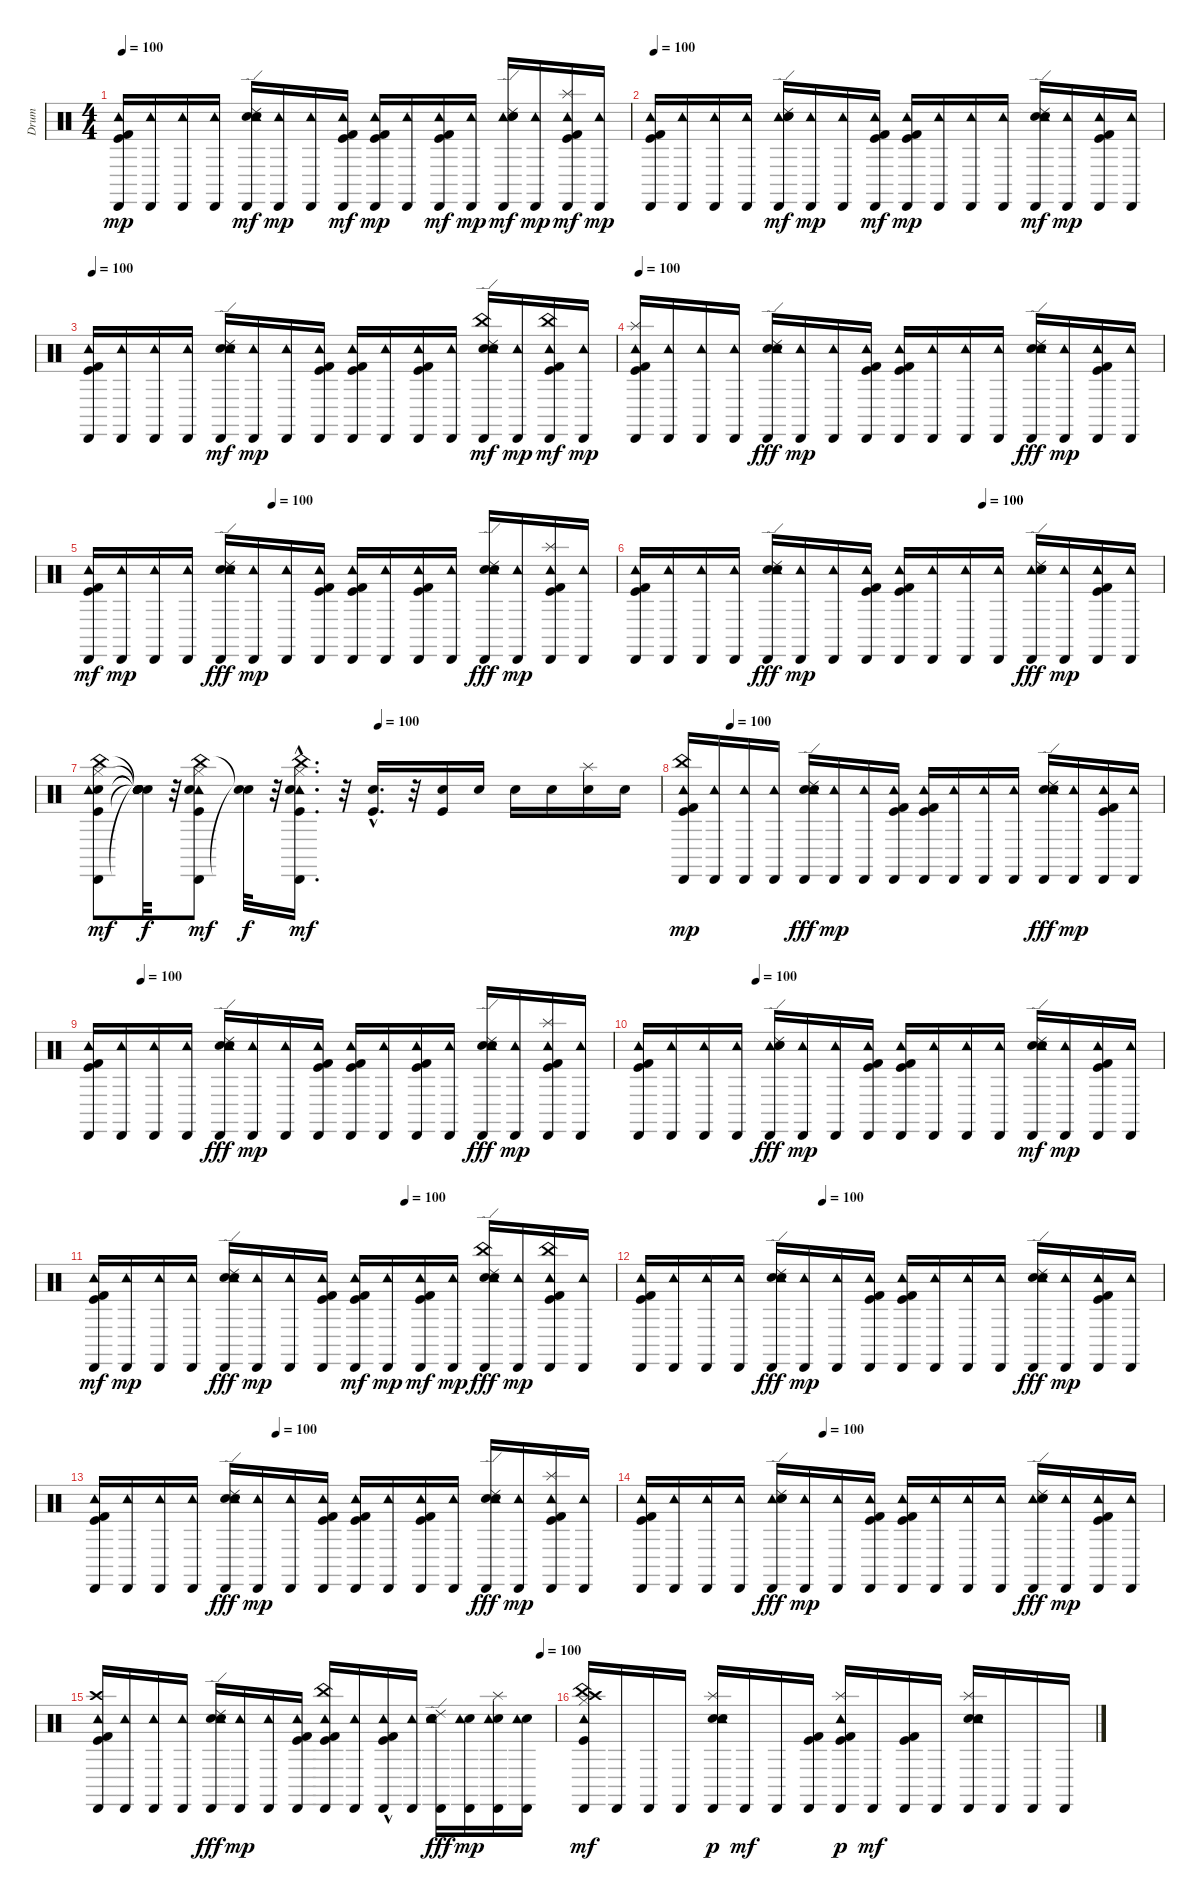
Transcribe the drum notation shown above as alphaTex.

\track ("Drum" "Drum") {instrument percussion}
\staff {score}
\articulation defaults
\ts (4 4)
\tempo 100
\clef neutral
\ks c
("Tambourine (hit)" "Kick (hit) 2" "Kick (hit)" "Cabasa (hit)").16{dy mp} ("Tambourine (hit)" "Cabasa (hit)").16 ("Cabasa (hit)" "Tambourine (hit)").16 ("Tambourine (hit)" "Cabasa (hit)").16 ("Snare (hit) 2" "Cabasa (hit)" "Tambourine (hit)" "Ride (edge) 2" "Electric Snare (hit)").16{dy mf} ("Cabasa (hit)" "Tambourine (hit)").16{dy mp} ("Tambourine (hit)" "Cabasa (hit)").16 ("Kick (hit) 2" "Cabasa (hit)" "Tambourine (hit)" "Kick (hit)").16{dy mf} ("Tambourine (hit)" "Kick (hit)" "Kick (hit) 2" "Cabasa (hit)").16{dy mp} ("Cabasa (hit)" "Tambourine (hit)").16 ("Tambourine (hit)" "Cabasa (hit)" "Kick (hit) 2" "Kick (hit)").16{dy mf} ("Cabasa (hit)" "Tambourine (hit)").16{dy mp} ("Tambourine (hit)" "Cabasa (hit)" "Ride (edge) 2" "Snare (hit) 2" "Electric Snare (hit)").16{dy mf} ("Cabasa (hit)" "Tambourine (hit)").16{dy mp} ("Tambourine (hit)" "Splash (hit)" "Cabasa (hit)" "Kick (hit)" "Kick (hit) 2").16{dy mf} ("Cabasa (hit)" "Tambourine (hit)").16{dy mp} |
\tempo 100
("Cabasa (hit)" "Kick (hit)" "Tambourine (hit)" "Kick (hit) 2").16 ("Cabasa (hit)" "Tambourine (hit)").16 ("Cabasa (hit)" "Tambourine (hit)").16 ("Cabasa (hit)" "Tambourine (hit)").16 ("Cabasa (hit)" "Tambourine (hit)" "Ride (edge) 2" "Snare (hit) 2" "Electric Snare (hit)").16{dy mf} ("Cabasa (hit)" "Tambourine (hit)").16{dy mp} ("Cabasa (hit)" "Tambourine (hit)").16 ("Kick (hit) 2" "Tambourine (hit)" "Cabasa (hit)" "Kick (hit)").16{dy mf} ("Cabasa (hit)" "Kick (hit) 2" "Kick (hit)" "Tambourine (hit)").16{dy mp} ("Tambourine (hit)" "Cabasa (hit)").16 ("Tambourine (hit)" "Cabasa (hit)").16 ("Cabasa (hit)" "Tambourine (hit)").16 ("Snare (hit) 2" "Tambourine (hit)" "Cabasa (hit)" "Ride (edge) 2" "Electric Snare (hit)").16{dy mf} ("Cabasa (hit)" "Tambourine (hit)").16{dy mp} ("Kick (hit)" "Tambourine (hit)" "Cabasa (hit)" "Kick (hit) 2").16 ("Tambourine (hit)" "Cabasa (hit)").16 |
\tempo 100
("Cabasa (hit)" "Kick (hit)" "Tambourine (hit)" "Kick (hit) 2").16 ("Cabasa (hit)" "Tambourine (hit)").16 ("Cabasa (hit)" "Tambourine (hit)").16 ("Cabasa (hit)" "Tambourine (hit)").16 ("Cabasa (hit)" "Snare (hit) 2" "Tambourine (hit)" "Ride (edge) 2" "Electric Snare (hit)").16{dy mf} ("Cabasa (hit)" "Tambourine (hit)").16{dy mp} ("Cabasa (hit)" "Tambourine (hit)").16 ("Cabasa (hit)" "Kick (hit)" "Tambourine (hit)" "Kick (hit) 2").16 ("Cabasa (hit)" "Kick (hit)" "Tambourine (hit)" "Kick (hit) 2").16 ("Cabasa (hit)" "Tambourine (hit)").16 ("Cabasa (hit)" "Kick (hit)" "Tambourine (hit)" "Kick (hit) 2").16 ("Cabasa (hit)" "Tambourine (hit)").16 ("Cabasa (hit)" "Snare (hit) 2" "Tambourine (hit)" "Ride (edge) 2" "China (hit)" "Electric Snare (hit)").16{dy mf} ("Cabasa (hit)" "Tambourine (hit)").16{dy mp} ("Cabasa (hit)" "Kick (hit)" "Tambourine (hit)" "China (hit)" "Kick (hit) 2").16{dy mf} ("Cabasa (hit)" "Tambourine (hit)").16{dy mp} |
\tempo 100
("Splash (hit)" "Kick (hit) 2" "Cabasa (hit)" "Kick (hit)" "Tambourine (hit)").16 ("Cabasa (hit)" "Tambourine (hit)").16 ("Cabasa (hit)" "Tambourine (hit)").16 ("Cabasa (hit)" "Tambourine (hit)").16 ("Electric Snare (hit)" "Ride (edge) 2" "Cabasa (hit)" "Snare (hit) 2" "Tambourine (hit)").16{dy fff} ("Cabasa (hit)" "Tambourine (hit)").16{dy mp} ("Cabasa (hit)" "Tambourine (hit)").16 ("Kick (hit) 2" "Cabasa (hit)" "Kick (hit)" "Tambourine (hit)").16 ("Kick (hit) 2" "Cabasa (hit)" "Kick (hit)" "Tambourine (hit)").16 ("Cabasa (hit)" "Tambourine (hit)").16 ("Cabasa (hit)" "Tambourine (hit)").16 ("Cabasa (hit)" "Tambourine (hit)").16 ("Electric Snare (hit)" "Ride (edge) 2" "Cabasa (hit)" "Snare (hit) 2" "Tambourine (hit)").16{dy fff} ("Cabasa (hit)" "Tambourine (hit)").16{dy mp} ("Kick (hit) 2" "Cabasa (hit)" "Kick (hit)" "Tambourine (hit)").16 ("Cabasa (hit)" "Tambourine (hit)").16 |
\tempo (100 0.34375)
("Kick (hit) 2" "Tambourine (hit)" "Cabasa (hit)" "Kick (hit)").16{dy mf} ("Cabasa (hit)" "Tambourine (hit)").16{dy mp} ("Tambourine (hit)" "Cabasa (hit)").16 ("Cabasa (hit)" "Tambourine (hit)").16 ("Ride (edge) 2" "Cabasa (hit)" "Electric Snare (hit)" "Snare (hit) 2" "Tambourine (hit)").16{dy fff} ("Tambourine (hit)" "Cabasa (hit)").16{dy mp} ("Cabasa (hit)" "Tambourine (hit)").16 ("Tambourine (hit)" "Kick (hit)" "Kick (hit) 2" "Cabasa (hit)").16 ("Cabasa (hit)" "Kick (hit)" "Kick (hit) 2" "Tambourine (hit)").16 ("Tambourine (hit)" "Cabasa (hit)").16 ("Kick (hit) 2" "Kick (hit)" "Tambourine (hit)" "Cabasa (hit)").16 ("Tambourine (hit)" "Cabasa (hit)").16 ("Electric Snare (hit)" "Cabasa (hit)" "Snare (hit) 2" "Ride (edge) 2" "Tambourine (hit)").16{dy fff} ("Tambourine (hit)" "Cabasa (hit)").16{dy mp} ("Kick (hit) 2" "Splash (hit)" "Kick (hit)" "Cabasa (hit)" "Tambourine (hit)").16 ("Tambourine (hit)" "Cabasa (hit)").16 |
\tempo (100 0.65625)
("Kick (hit) 2" "Tambourine (hit)" "Kick (hit)" "Cabasa (hit)").16 ("Tambourine (hit)" "Cabasa (hit)").16 ("Tambourine (hit)" "Cabasa (hit)").16 ("Tambourine (hit)" "Cabasa (hit)").16 ("Electric Snare (hit)" "Tambourine (hit)" "Snare (hit) 2" "Ride (edge) 2" "Cabasa (hit)").16{dy fff} ("Tambourine (hit)" "Cabasa (hit)").16{dy mp} ("Tambourine (hit)" "Cabasa (hit)").16 ("Cabasa (hit)" "Kick (hit)" "Kick (hit) 2" "Tambourine (hit)").16 ("Kick (hit) 2" "Tambourine (hit)" "Kick (hit)" "Cabasa (hit)").16 ("Cabasa (hit)" "Tambourine (hit)").16 ("Cabasa (hit)" "Tambourine (hit)").16 ("Tambourine (hit)" "Cabasa (hit)").16 ("Ride (edge) 2" "Tambourine (hit)" "Electric Snare (hit)" "Snare (hit) 2" "Cabasa (hit)").16{dy fff} ("Tambourine (hit)" "Cabasa (hit)").16{dy mp} ("Tambourine (hit)" "Kick (hit)" "Kick (hit) 2" "Cabasa (hit)").16 ("Cabasa (hit)" "Tambourine (hit)").16 |
\tempo (100 0.5)
("China (hit)" "Cabasa (hit)" "Kick (hit)" "Snare (hit) 2" "Hi-Hat (closed)" "Tambourine (hit)").8{dy mf} ("Snare (hit)"{t} "Snare (hit)"{t} "Snare (hit)"{t} "Snare (hit)"{t} "Snare (hit)"{t} "Snare (hit)"{t}).32{dy f} r.32 ("China (hit)" "Cabasa (hit)" "Hi-Hat (closed)" "Tambourine (hit)" "Kick (hit)" "Snare (hit) 2").8{dy mf} ("Snare (hit)"{t} "Snare (hit)"{t}).32{dy f} r.32 ("China (hit)"{hac} "Cabasa (hit)"{hac} "Hi-Hat (closed)"{hac} "Tambourine (hit)"{hac} "Kick (hit)"{hac} "Snare (hit) 2"{hac}).16{d dy mf} r.32 ("Snare (hit) 2"{hac} "Kick (hit)"{hac}).16{d} r.32 ("Kick (hit)" "Snare (hit) 2").16 "Snare (hit) 2".16 "Snare (hit) 2".16 "Snare (hit) 2".16 ("Snare (hit) 2" "Splash (hit)").16 "Snare (hit) 2".16 |
\tempo (100 0.09375)
("China (hit)" "Kick (hit) 2" "Cabasa (hit)" "Kick (hit)" "Tambourine (hit)").16{dy mp} ("Cabasa (hit)" "Tambourine (hit)").16 ("Cabasa (hit)" "Tambourine (hit)").16 ("Cabasa (hit)" "Tambourine (hit)").16 ("Electric Snare (hit)" "Ride (edge) 2" "Cabasa (hit)" "Snare (hit) 2" "Tambourine (hit)").16{dy fff} ("Cabasa (hit)" "Tambourine (hit)").16{dy mp} ("Cabasa (hit)" "Tambourine (hit)").16 ("Kick (hit) 2" "Cabasa (hit)" "Kick (hit)" "Tambourine (hit)").16 ("Kick (hit) 2" "Cabasa (hit)" "Kick (hit)" "Tambourine (hit)").16 ("Cabasa (hit)" "Tambourine (hit)").16 ("Cabasa (hit)" "Tambourine (hit)").16 ("Cabasa (hit)" "Tambourine (hit)").16 ("Electric Snare (hit)" "Ride (edge) 2" "Cabasa (hit)" "Snare (hit) 2" "Tambourine (hit)").16{dy fff} ("Cabasa (hit)" "Tambourine (hit)").16{dy mp} ("Kick (hit) 2" "Cabasa (hit)" "Kick (hit)" "Tambourine (hit)").16 ("Cabasa (hit)" "Tambourine (hit)").16 |
\tempo (100 0.09375)
("Kick (hit) 2" "Cabasa (hit)" "Kick (hit)" "Tambourine (hit)").16 ("Cabasa (hit)" "Tambourine (hit)").16 ("Cabasa (hit)" "Tambourine (hit)").16 ("Cabasa (hit)" "Tambourine (hit)").16 ("Electric Snare (hit)" "Ride (edge) 2" "Cabasa (hit)" "Snare (hit) 2" "Tambourine (hit)").16{dy fff} ("Cabasa (hit)" "Tambourine (hit)").16{dy mp} ("Cabasa (hit)" "Tambourine (hit)").16 ("Kick (hit) 2" "Cabasa (hit)" "Kick (hit)" "Tambourine (hit)").16 ("Kick (hit) 2" "Cabasa (hit)" "Kick (hit)" "Tambourine (hit)").16 ("Cabasa (hit)" "Tambourine (hit)").16 ("Kick (hit) 2" "Cabasa (hit)" "Kick (hit)" "Tambourine (hit)").16 ("Cabasa (hit)" "Tambourine (hit)").16 ("Electric Snare (hit)" "Ride (edge) 2" "Cabasa (hit)" "Snare (hit) 2" "Tambourine (hit)").16{dy fff} ("Cabasa (hit)" "Tambourine (hit)").16{dy mp} ("Kick (hit) 2" "Cabasa (hit)" "Splash (hit)" "Kick (hit)" "Tambourine (hit)").16 ("Cabasa (hit)" "Tambourine (hit)").16 |
\tempo (100 0.21875)
("Kick (hit) 2" "Tambourine (hit)" "Kick (hit)" "Cabasa (hit)").16 ("Tambourine (hit)" "Cabasa (hit)").16 ("Tambourine (hit)" "Cabasa (hit)").16 ("Tambourine (hit)" "Cabasa (hit)").16 ("Tambourine (hit)" "Ride (edge) 2" "Snare (hit) 2" "Electric Snare (hit)" "Cabasa (hit)").16{dy fff} ("Tambourine (hit)" "Cabasa (hit)").16{dy mp} ("Tambourine (hit)" "Cabasa (hit)").16 ("Cabasa (hit)" "Kick (hit)" "Kick (hit) 2" "Tambourine (hit)").16 ("Kick (hit) 2" "Tambourine (hit)" "Kick (hit)" "Cabasa (hit)").16 ("Cabasa (hit)" "Tambourine (hit)").16 ("Tambourine (hit)" "Cabasa (hit)").16 ("Cabasa (hit)" "Tambourine (hit)").16 ("Electric Snare (hit)" "Snare (hit) 2" "Tambourine (hit)" "Cabasa (hit)" "Ride (edge) 2").16{dy mf} ("Cabasa (hit)" "Tambourine (hit)").16{dy mp} ("Kick (hit) 2" "Tambourine (hit)" "Kick (hit)" "Cabasa (hit)").16 ("Cabasa (hit)" "Tambourine (hit)").16 |
\tempo (100 0.59375)
("Kick (hit) 2" "Tambourine (hit)" "Cabasa (hit)" "Kick (hit)").16{dy mf} ("Tambourine (hit)" "Cabasa (hit)").16{dy mp} ("Tambourine (hit)" "Cabasa (hit)").16 ("Tambourine (hit)" "Cabasa (hit)").16 ("Snare (hit) 2" "Electric Snare (hit)" "Ride (edge) 2" "Tambourine (hit)" "Cabasa (hit)").16{dy fff} ("Tambourine (hit)" "Cabasa (hit)").16{dy mp} ("Tambourine (hit)" "Cabasa (hit)").16 ("Kick (hit)" "Cabasa (hit)" "Tambourine (hit)" "Kick (hit) 2").16 ("Kick (hit) 2" "Cabasa (hit)" "Tambourine (hit)" "Kick (hit)").16{dy mf} ("Tambourine (hit)" "Cabasa (hit)").16{dy mp} ("Kick (hit) 2" "Tambourine (hit)" "Cabasa (hit)" "Kick (hit)").16{dy mf} ("Cabasa (hit)" "Tambourine (hit)").16{dy mp} ("Snare (hit) 2" "Tambourine (hit)" "China (hit)" "Electric Snare (hit)" "Ride (edge) 2" "Cabasa (hit)").16{dy fff} ("Cabasa (hit)" "Tambourine (hit)").16{dy mp} ("Kick (hit) 2" "China (hit)" "Kick (hit)" "Tambourine (hit)" "Cabasa (hit)").16 ("Tambourine (hit)" "Cabasa (hit)").16 |
\tempo (100 0.34375)
("Kick (hit) 2" "Cabasa (hit)" "Kick (hit)" "Tambourine (hit)").16 ("Cabasa (hit)" "Tambourine (hit)").16 ("Cabasa (hit)" "Tambourine (hit)").16 ("Cabasa (hit)" "Tambourine (hit)").16 ("Electric Snare (hit)" "Ride (edge) 2" "Cabasa (hit)" "Snare (hit) 2" "Tambourine (hit)").16{dy fff} ("Cabasa (hit)" "Tambourine (hit)").16{dy mp} ("Cabasa (hit)" "Tambourine (hit)").16 ("Kick (hit) 2" "Cabasa (hit)" "Kick (hit)" "Tambourine (hit)").16 ("Kick (hit) 2" "Cabasa (hit)" "Kick (hit)" "Tambourine (hit)").16 ("Cabasa (hit)" "Tambourine (hit)").16 ("Cabasa (hit)" "Tambourine (hit)").16 ("Cabasa (hit)" "Tambourine (hit)").16 ("Electric Snare (hit)" "Ride (edge) 2" "Cabasa (hit)" "Snare (hit) 2" "Tambourine (hit)").16{dy fff} ("Cabasa (hit)" "Tambourine (hit)").16{dy mp} ("Kick (hit) 2" "Cabasa (hit)" "Kick (hit)" "Tambourine (hit)").16 ("Cabasa (hit)" "Tambourine (hit)").16 |
\tempo (100 0.34375)
("Cabasa (hit)" "Kick (hit)" "Tambourine (hit)" "Kick (hit) 2").16 ("Tambourine (hit)" "Cabasa (hit)").16 ("Tambourine (hit)" "Cabasa (hit)").16 ("Cabasa (hit)" "Tambourine (hit)").16 ("Ride (edge) 2" "Electric Snare (hit)" "Cabasa (hit)" "Snare (hit) 2" "Tambourine (hit)").16{dy fff} ("Tambourine (hit)" "Cabasa (hit)").16{dy mp} ("Cabasa (hit)" "Tambourine (hit)").16 ("Tambourine (hit)" "Kick (hit)" "Kick (hit) 2" "Cabasa (hit)").16 ("Kick (hit)" "Cabasa (hit)" "Tambourine (hit)" "Kick (hit) 2").16 ("Tambourine (hit)" "Cabasa (hit)").16 ("Tambourine (hit)" "Kick (hit)" "Cabasa (hit)" "Kick (hit) 2").16 ("Cabasa (hit)" "Tambourine (hit)").16 ("Cabasa (hit)" "Ride (edge) 2" "Snare (hit) 2" "Electric Snare (hit)" "Tambourine (hit)").16{dy fff} ("Tambourine (hit)" "Cabasa (hit)").16{dy mp} ("Splash (hit)" "Kick (hit)" "Cabasa (hit)" "Tambourine (hit)" "Kick (hit) 2").16 ("Cabasa (hit)" "Tambourine (hit)").16 |
\tempo (100 0.34375)
("Tambourine (hit)" "Kick (hit)" "Cabasa (hit)" "Kick (hit) 2").16 ("Tambourine (hit)" "Cabasa (hit)").16 ("Tambourine (hit)" "Cabasa (hit)").16 ("Tambourine (hit)" "Cabasa (hit)").16 ("Tambourine (hit)" "Ride (edge) 2" "Snare (hit) 2" "Electric Snare (hit)" "Cabasa (hit)").16{dy fff} ("Tambourine (hit)" "Cabasa (hit)").16{dy mp} ("Cabasa (hit)" "Tambourine (hit)").16 ("Cabasa (hit)" "Kick (hit)" "Kick (hit) 2" "Tambourine (hit)").16 ("Tambourine (hit)" "Kick (hit)" "Cabasa (hit)" "Kick (hit) 2").16 ("Cabasa (hit)" "Tambourine (hit)").16 ("Tambourine (hit)" "Cabasa (hit)").16 ("Cabasa (hit)" "Tambourine (hit)").16 ("Tambourine (hit)" "Ride (edge) 2" "Snare (hit) 2" "Electric Snare (hit)" "Cabasa (hit)").16{dy fff} ("Cabasa (hit)" "Tambourine (hit)").16{dy mp} ("Tambourine (hit)" "Cabasa (hit)" "Kick (hit)" "Kick (hit) 2").16 ("Cabasa (hit)" "Tambourine (hit)").16 |
\tempo (100 0.96875)
("Kick (hit) 2" "Crash high (hit)" "Tambourine (hit)" "Kick (hit)" "Cabasa (hit)").16 ("Tambourine (hit)" "Cabasa (hit)").16 ("Tambourine (hit)" "Cabasa (hit)").16 ("Tambourine (hit)" "Cabasa (hit)").16 ("Electric Snare (hit)" "Ride (edge) 2" "Tambourine (hit)" "Snare (hit) 2" "Cabasa (hit)").16{dy fff} ("Tambourine (hit)" "Cabasa (hit)").16{dy mp} ("Tambourine (hit)" "Cabasa (hit)").16 ("Kick (hit) 2" "Tambourine (hit)" "Kick (hit)" "Cabasa (hit)").16 ("Kick (hit) 2" "China (hit)" "Tambourine (hit)" "Kick (hit)" "Cabasa (hit)").16 ("Tambourine (hit)" "Cabasa (hit)").16 ("Kick (hit) 2"{hac} "Tambourine (hit)" "Kick (hit)" "Cabasa (hit)").16 ("Tambourine (hit)" "Cabasa (hit)").16 ("Snare (hit) 2" "Ride (edge) 2" "Tambourine (hit)" "Snare (hit) 2" "Cabasa (hit)").16{dy fff} ("Snare (hit) 2" "Tambourine (hit)" "Cabasa (hit)").16{dy mp} ("Splash (hit)" "Snare (hit) 2" "Tambourine (hit)" "Cabasa (hit)").16 ("Snare (hit) 2" "Tambourine (hit)" "Cabasa (hit)").16 |
("Crash high (hit)" "Tambourine (hit)" "Cabasa (hit)" "Kick (hit)" "China (hit)" "Hi-Hat (closed)").16{dy mf} "Cabasa (hit)".16 "Cabasa (hit)".16 "Cabasa (hit)".16 ("Electric Snare (hit)" "Tambourine (hit)" "Cabasa (hit)" "Snare (hit) 2" "Splash (hit)").16{dy p} "Cabasa (hit)".16{dy mf} "Cabasa (hit)".16 ("Cabasa (hit)" "Kick (hit)" "Kick (hit) 2").16 ("Tambourine (hit)" "Cabasa (hit)" "Kick (hit)" "Splash (hit)" "Kick (hit) 2").16{dy p} "Cabasa (hit)".16{dy mf} ("Cabasa (hit)" "Kick (hit)" "Kick (hit) 2").16 "Cabasa (hit)".16 ("Electric Snare (hit)" "Tambourine (hit)" "Cabasa (hit)" "Splash (hit)" "Snare (hit) 2").16 "Cabasa (hit)".16 "Cabasa (hit)".16 "Cabasa (hit)".16
